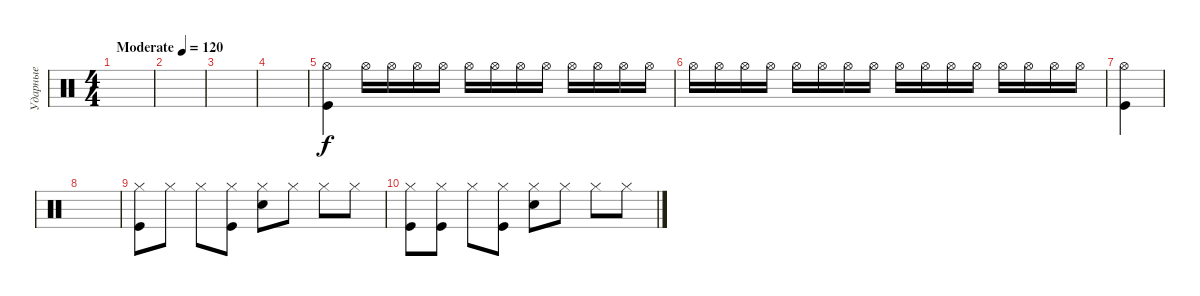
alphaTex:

\track ("Ударные" "Ударные") {instrument percussion}
\staff
\articulation defaults
\ts (4 4)
\tempo (120 "Moderate")
\clef neutral
\ks c
|
|
|
|
("Hi-Hat (open)" "Kick (hit)").4 "Hi-Hat (open)".16 "Hi-Hat (open)".16 "Hi-Hat (open)".16 "Hi-Hat (open)".16 "Hi-Hat (open)".16 "Hi-Hat (open)".16 "Hi-Hat (open)".16 "Hi-Hat (open)".16 "Hi-Hat (open)".16 "Hi-Hat (open)".16 "Hi-Hat (open)".16 "Hi-Hat (open)".16 |
"Hi-Hat (open)".16 "Hi-Hat (open)".16 "Hi-Hat (open)".16 "Hi-Hat (open)".16 "Hi-Hat (open)".16 "Hi-Hat (open)".16 "Hi-Hat (open)".16 "Hi-Hat (open)".16 "Hi-Hat (open)".16 "Hi-Hat (open)".16 "Hi-Hat (open)".16 "Hi-Hat (open)".16 "Hi-Hat (open)".16 "Hi-Hat (open)".16 "Hi-Hat (open)".16 "Hi-Hat (open)".16 |
("Hi-Hat (open)" "Kick (hit)").4 |
|
("Hi-Hat (closed)" "Kick (hit)").8 "Hi-Hat (closed)".8 "Hi-Hat (closed)".8 ("Hi-Hat (closed)" "Kick (hit)").8 ("Hi-Hat (closed)" "Electric Snare (hit)").8 "Hi-Hat (closed)".8 "Hi-Hat (closed)".8 "Hi-Hat (closed)".8 |
("Hi-Hat (closed)" "Kick (hit)").8 ("Hi-Hat (closed)" "Kick (hit)").8 "Hi-Hat (closed)".8 ("Hi-Hat (closed)" "Kick (hit)").8 ("Hi-Hat (closed)" "Electric Snare (hit)").8 "Hi-Hat (closed)".8 "Hi-Hat (closed)".8 "Hi-Hat (closed)".8
